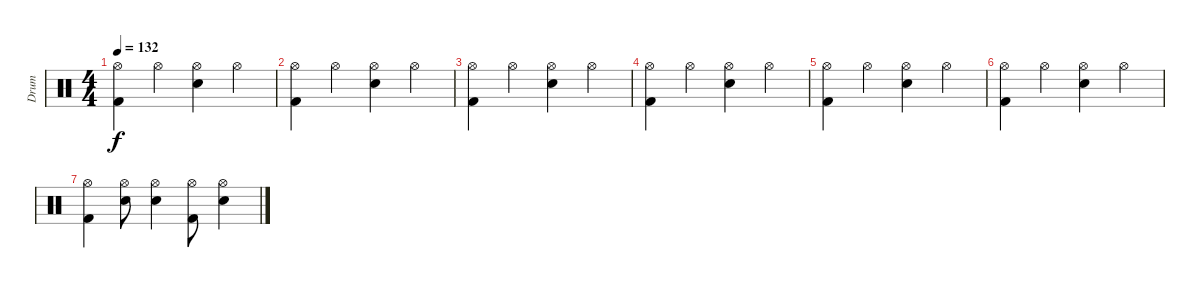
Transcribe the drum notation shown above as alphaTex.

\track ("Drum" "Drum") {instrument percussion}
\staff {score}
\articulation defaults
\ts (4 4)
\tempo 132
\clef neutral
\ks c
("Hi-Hat (open)" "Kick (hit) 2").4{dy f} "Hi-Hat (open)".4 ("Hi-Hat (open)" "Snare (hit) 2").4 "Hi-Hat (open)".4 |
("Hi-Hat (open)" "Kick (hit) 2").4 "Hi-Hat (open)".4 ("Hi-Hat (open)" "Snare (hit) 2").4 "Hi-Hat (open)".4 |
("Hi-Hat (open)" "Kick (hit) 2").4 "Hi-Hat (open)".4 ("Hi-Hat (open)" "Snare (hit) 2").4 "Hi-Hat (open)".4 |
("Hi-Hat (open)" "Kick (hit) 2").4 "Hi-Hat (open)".4 ("Hi-Hat (open)" "Snare (hit) 2").4 "Hi-Hat (open)".4 |
("Hi-Hat (open)" "Kick (hit) 2").4 "Hi-Hat (open)".4 ("Hi-Hat (open)" "Snare (hit) 2").4 "Hi-Hat (open)".4 |
("Hi-Hat (open)" "Kick (hit) 2").4 "Hi-Hat (open)".4 ("Hi-Hat (open)" "Snare (hit) 2").4 "Hi-Hat (open)".4 |
("Hi-Hat (open)" "Kick (hit) 2").4 ("Hi-Hat (open)" "Snare (hit) 2").8 ("Hi-Hat (open)" "Snare (hit) 2").4 ("Hi-Hat (open)" "Kick (hit) 2").8 ("Hi-Hat (open)" "Snare (hit) 2").4
